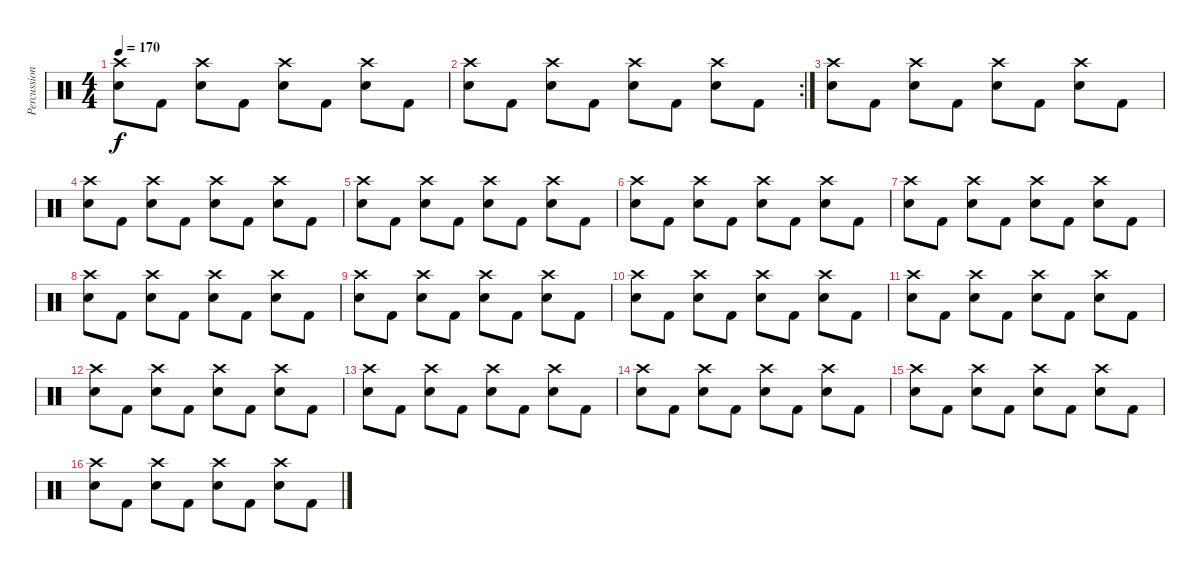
\track ("Percussion" "Percussion") {instrument percussion}
\staff {score}
\articulation defaults
\ts (4 4)
\tempo 170
\clef neutral
\ks c
("Crash high (hit)" "Electric Snare (hit)").8{dy f} "Kick (hit) 2".8 ("Crash high (hit)" "Electric Snare (hit)").8 "Kick (hit) 2".8 ("Crash high (hit)" "Electric Snare (hit)").8 "Kick (hit) 2".8 ("Crash high (hit)" "Electric Snare (hit)").8 "Kick (hit) 2".8 |
\rc 2
("Crash high (hit)" "Electric Snare (hit)").8 "Kick (hit) 2".8 ("Crash high (hit)" "Electric Snare (hit)").8 "Kick (hit) 2".8 ("Crash high (hit)" "Electric Snare (hit)").8 "Kick (hit) 2".8 ("Crash high (hit)" "Electric Snare (hit)").8 "Kick (hit) 2".8 |
("Crash high (hit)" "Electric Snare (hit)").8 "Kick (hit) 2".8 ("Crash high (hit)" "Electric Snare (hit)").8 "Kick (hit) 2".8 ("Crash high (hit)" "Electric Snare (hit)").8 "Kick (hit) 2".8 ("Crash high (hit)" "Electric Snare (hit)").8 "Kick (hit) 2".8 |
("Crash high (hit)" "Electric Snare (hit)").8 "Kick (hit) 2".8 ("Crash high (hit)" "Electric Snare (hit)").8 "Kick (hit) 2".8 ("Crash high (hit)" "Electric Snare (hit)").8 "Kick (hit) 2".8 ("Crash high (hit)" "Electric Snare (hit)").8 "Kick (hit) 2".8 |
("Crash high (hit)" "Electric Snare (hit)").8 "Kick (hit) 2".8 ("Crash high (hit)" "Electric Snare (hit)").8 "Kick (hit) 2".8 ("Crash high (hit)" "Electric Snare (hit)").8 "Kick (hit) 2".8 ("Crash high (hit)" "Electric Snare (hit)").8 "Kick (hit) 2".8 |
("Crash high (hit)" "Electric Snare (hit)").8 "Kick (hit) 2".8 ("Crash high (hit)" "Electric Snare (hit)").8 "Kick (hit) 2".8 ("Crash high (hit)" "Electric Snare (hit)").8 "Kick (hit) 2".8 ("Crash high (hit)" "Electric Snare (hit)").8 "Kick (hit) 2".8 |
("Crash high (hit)" "Electric Snare (hit)").8 "Kick (hit) 2".8 ("Crash high (hit)" "Electric Snare (hit)").8 "Kick (hit) 2".8 ("Crash high (hit)" "Electric Snare (hit)").8 "Kick (hit) 2".8 ("Crash high (hit)" "Electric Snare (hit)").8 "Kick (hit) 2".8 |
("Crash high (hit)" "Electric Snare (hit)").8 "Kick (hit) 2".8 ("Crash high (hit)" "Electric Snare (hit)").8 "Kick (hit) 2".8 ("Crash high (hit)" "Electric Snare (hit)").8 "Kick (hit) 2".8 ("Crash high (hit)" "Electric Snare (hit)").8 "Kick (hit) 2".8 |
("Crash high (hit)" "Electric Snare (hit)").8 "Kick (hit) 2".8 ("Crash high (hit)" "Electric Snare (hit)").8 "Kick (hit) 2".8 ("Crash high (hit)" "Electric Snare (hit)").8 "Kick (hit) 2".8 ("Crash high (hit)" "Electric Snare (hit)").8 "Kick (hit) 2".8 |
("Crash high (hit)" "Electric Snare (hit)").8 "Kick (hit) 2".8 ("Crash high (hit)" "Electric Snare (hit)").8 "Kick (hit) 2".8 ("Crash high (hit)" "Electric Snare (hit)").8 "Kick (hit) 2".8 ("Crash high (hit)" "Electric Snare (hit)").8 "Kick (hit) 2".8 |
("Crash high (hit)" "Electric Snare (hit)").8 "Kick (hit) 2".8 ("Crash high (hit)" "Electric Snare (hit)").8 "Kick (hit) 2".8 ("Crash high (hit)" "Electric Snare (hit)").8 "Kick (hit) 2".8 ("Crash high (hit)" "Electric Snare (hit)").8 "Kick (hit) 2".8 |
("Crash high (hit)" "Electric Snare (hit)").8 "Kick (hit) 2".8 ("Crash high (hit)" "Electric Snare (hit)").8 "Kick (hit) 2".8 ("Crash high (hit)" "Electric Snare (hit)").8 "Kick (hit) 2".8 ("Crash high (hit)" "Electric Snare (hit)").8 "Kick (hit) 2".8 |
("Crash high (hit)" "Electric Snare (hit)").8 "Kick (hit) 2".8 ("Crash high (hit)" "Electric Snare (hit)").8 "Kick (hit) 2".8 ("Crash high (hit)" "Electric Snare (hit)").8 "Kick (hit) 2".8 ("Crash high (hit)" "Electric Snare (hit)").8 "Kick (hit) 2".8 |
("Crash high (hit)" "Electric Snare (hit)").8 "Kick (hit) 2".8 ("Crash high (hit)" "Electric Snare (hit)").8 "Kick (hit) 2".8 ("Crash high (hit)" "Electric Snare (hit)").8 "Kick (hit) 2".8 ("Crash high (hit)" "Electric Snare (hit)").8 "Kick (hit) 2".8 |
("Crash high (hit)" "Electric Snare (hit)").8 "Kick (hit) 2".8 ("Crash high (hit)" "Electric Snare (hit)").8 "Kick (hit) 2".8 ("Crash high (hit)" "Electric Snare (hit)").8 "Kick (hit) 2".8 ("Crash high (hit)" "Electric Snare (hit)").8 "Kick (hit) 2".8 |
("Crash high (hit)" "Electric Snare (hit)").8 "Kick (hit) 2".8 ("Crash high (hit)" "Electric Snare (hit)").8 "Kick (hit) 2".8 ("Crash high (hit)" "Electric Snare (hit)").8 "Kick (hit) 2".8 ("Crash high (hit)" "Electric Snare (hit)").8 "Kick (hit) 2".8
